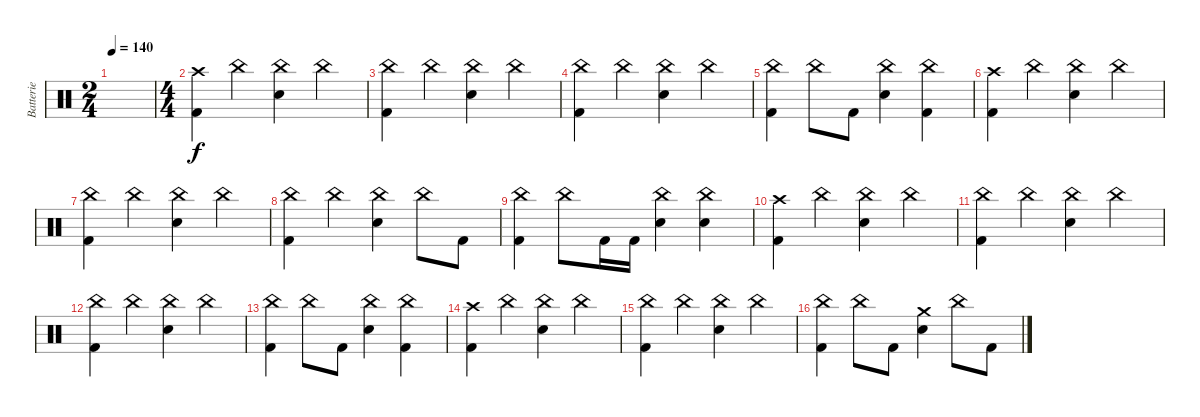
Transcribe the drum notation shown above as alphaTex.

\track ("Batterie" "Batterie") {instrument percussion}
\staff {score}
\articulation defaults
\ts (2 4)
\tempo 140
\clef neutral
\ks c
|
\ts (4 4)
("Crash high (hit)" "Kick (hit) 2").4 "China (hit)".4 ("China (hit)" "Electric Snare (hit)").4 "China (hit)".4 |
("China (hit)" "Kick (hit) 2").4 "China (hit)".4 ("China (hit)" "Electric Snare (hit)").4 "China (hit)".4 |
("China (hit)" "Kick (hit) 2").4 "China (hit)".4 ("China (hit)" "Electric Snare (hit)").4 "China (hit)".4 |
("China (hit)" "Kick (hit) 2").4 "China (hit)".8 "Kick (hit) 2".8 ("China (hit)" "Electric Snare (hit)").4 ("China (hit)" "Kick (hit) 2").4 |
("Crash high (hit)" "Kick (hit) 2").4 "China (hit)".4 ("China (hit)" "Electric Snare (hit)").4 "China (hit)".4 |
("China (hit)" "Kick (hit) 2").4 "China (hit)".4 ("China (hit)" "Electric Snare (hit)").4 "China (hit)".4 |
("China (hit)" "Kick (hit) 2").4 "China (hit)".4 ("China (hit)" "Electric Snare (hit)").4 "China (hit)".8 "Kick (hit) 2".8 |
("China (hit)" "Kick (hit) 2").4 "China (hit)".8 "Kick (hit) 2".16 "Kick (hit) 2".16 ("China (hit)" "Electric Snare (hit)").4 ("China (hit)" "Electric Snare (hit)").4 |
("Crash high (hit)" "Kick (hit) 2").4 "China (hit)".4 ("China (hit)" "Electric Snare (hit)").4 "China (hit)".4 |
("China (hit)" "Kick (hit) 2").4 "China (hit)".4 ("China (hit)" "Electric Snare (hit)").4 "China (hit)".4 |
("China (hit)" "Kick (hit) 2").4 "China (hit)".4 ("China (hit)" "Electric Snare (hit)").4 "China (hit)".4 |
("China (hit)" "Kick (hit) 2").4 "China (hit)".8 "Kick (hit) 2".8 ("China (hit)" "Electric Snare (hit)").4 ("China (hit)" "Kick (hit) 2").4 |
("Crash high (hit)" "Kick (hit) 2").4 "China (hit)".4 ("China (hit)" "Electric Snare (hit)").4 "China (hit)".4 |
("China (hit)" "Kick (hit) 2").4 "China (hit)".4 ("China (hit)" "Electric Snare (hit)").4 "China (hit)".4 |
("China (hit)" "Kick (hit) 2").4 "China (hit)".8 "Kick (hit) 2".8 ("Crash medium (hit)" "Electric Snare (hit)").4 "China (hit)".8 "Kick (hit) 2".8
